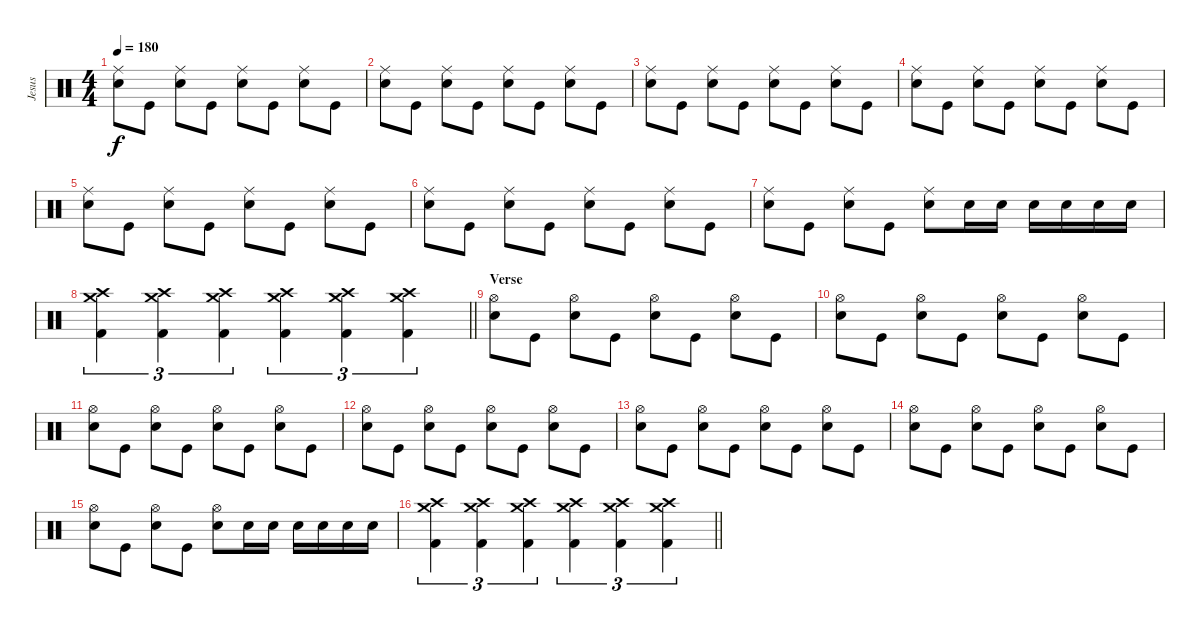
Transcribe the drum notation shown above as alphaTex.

\track ("Jesus" "Jesus") {instrument percussion}
\staff {score}
\articulation defaults
\ts (4 4)
\tempo 180
\clef neutral
\ks c
("Ride (middle)" "Snare (hit) 2").8{dy f} "Kick (hit)".8 ("Ride (middle)" "Snare (hit) 2").8 "Kick (hit)".8 ("Ride (middle)" "Snare (hit) 2").8 "Kick (hit)".8 ("Ride (middle)" "Snare (hit) 2").8 "Kick (hit)".8 |
("Ride (middle)" "Snare (hit) 2").8 "Kick (hit)".8 ("Ride (middle)" "Snare (hit) 2").8 "Kick (hit)".8 ("Ride (middle)" "Snare (hit) 2").8 "Kick (hit)".8 ("Ride (middle)" "Snare (hit) 2").8 "Kick (hit)".8 |
("Ride (middle)" "Snare (hit) 2").8 "Kick (hit)".8 ("Ride (middle)" "Snare (hit) 2").8 "Kick (hit)".8 ("Ride (middle)" "Snare (hit) 2").8 "Kick (hit)".8 ("Ride (middle)" "Snare (hit) 2").8 "Kick (hit)".8 |
("Ride (middle)" "Snare (hit) 2").8 "Kick (hit)".8 ("Ride (middle)" "Snare (hit) 2").8 "Kick (hit)".8 ("Ride (middle)" "Snare (hit) 2").8 "Kick (hit)".8 ("Ride (middle)" "Snare (hit) 2").8 "Kick (hit)".8 |
("Ride (middle)" "Snare (hit) 2").8 "Kick (hit)".8 ("Ride (middle)" "Snare (hit) 2").8 "Kick (hit)".8 ("Ride (middle)" "Snare (hit) 2").8 "Kick (hit)".8 ("Ride (middle)" "Snare (hit) 2").8 "Kick (hit)".8 |
("Ride (middle)" "Snare (hit) 2").8 "Kick (hit)".8 ("Ride (middle)" "Snare (hit) 2").8 "Kick (hit)".8 ("Ride (middle)" "Snare (hit) 2").8 "Kick (hit)".8 ("Ride (middle)" "Snare (hit) 2").8 "Kick (hit)".8 |
("Ride (middle)" "Snare (hit) 2").8 "Kick (hit)".8 ("Ride (middle)" "Snare (hit) 2").8 "Kick (hit)".8 ("Ride (middle)" "Snare (hit) 2").8 "Snare (hit) 2".16 "Snare (hit) 2".16 "Snare (hit) 2".16 "Snare (hit) 2".16 "Snare (hit) 2".16 "Snare (hit) 2".16 |
\barLineRight lightlight
("Crash high (hit)" "Crash medium (hit)" "Kick (hit) 2").4{tu (3 2)} ("Crash high (hit)" "Crash medium (hit)" "Kick (hit) 2").4{tu (3 2)} ("Crash high (hit)" "Crash medium (hit)" "Kick (hit) 2").4{tu (3 2)} ("Crash high (hit)" "Crash medium (hit)" "Kick (hit) 2").4{tu (3 2)} ("Crash high (hit)" "Crash medium (hit)" "Kick (hit) 2").4{tu (3 2)} ("Crash high (hit)" "Crash medium (hit)" "Kick (hit) 2").4{tu (3 2)} |
\section ("" "Verse")
("Hi-Hat (open)" "Snare (hit) 2").8 "Kick (hit)".8 ("Hi-Hat (open)" "Snare (hit) 2").8 "Kick (hit)".8 ("Hi-Hat (open)" "Snare (hit) 2").8 "Kick (hit)".8 ("Hi-Hat (open)" "Snare (hit) 2").8 "Kick (hit)".8 |
("Hi-Hat (open)" "Snare (hit) 2").8 "Kick (hit)".8 ("Hi-Hat (open)" "Snare (hit) 2").8 "Kick (hit)".8 ("Hi-Hat (open)" "Snare (hit) 2").8 "Kick (hit)".8 ("Hi-Hat (open)" "Snare (hit) 2").8 "Kick (hit)".8 |
("Hi-Hat (open)" "Snare (hit) 2").8 "Kick (hit)".8 ("Hi-Hat (open)" "Snare (hit) 2").8 "Kick (hit)".8 ("Hi-Hat (open)" "Snare (hit) 2").8 "Kick (hit)".8 ("Hi-Hat (open)" "Snare (hit) 2").8 "Kick (hit)".8 |
("Hi-Hat (open)" "Snare (hit) 2").8 "Kick (hit)".8 ("Hi-Hat (open)" "Snare (hit) 2").8 "Kick (hit)".8 ("Hi-Hat (open)" "Snare (hit) 2").8 "Kick (hit)".8 ("Hi-Hat (open)" "Snare (hit) 2").8 "Kick (hit)".8 |
("Hi-Hat (open)" "Snare (hit) 2").8 "Kick (hit)".8 ("Hi-Hat (open)" "Snare (hit) 2").8 "Kick (hit)".8 ("Hi-Hat (open)" "Snare (hit) 2").8 "Kick (hit)".8 ("Hi-Hat (open)" "Snare (hit) 2").8 "Kick (hit)".8 |
("Hi-Hat (open)" "Snare (hit) 2").8 "Kick (hit)".8 ("Hi-Hat (open)" "Snare (hit) 2").8 "Kick (hit)".8 ("Hi-Hat (open)" "Snare (hit) 2").8 "Kick (hit)".8 ("Hi-Hat (open)" "Snare (hit) 2").8 "Kick (hit)".8 |
("Hi-Hat (open)" "Snare (hit) 2").8 "Kick (hit)".8 ("Hi-Hat (open)" "Snare (hit) 2").8 "Kick (hit)".8 ("Hi-Hat (open)" "Snare (hit) 2").8 "Snare (hit) 2".16 "Snare (hit) 2".16 "Snare (hit) 2".16 "Snare (hit) 2".16 "Snare (hit) 2".16 "Snare (hit) 2".16 |
\barLineRight lightlight
("Crash high (hit)" "Crash medium (hit)" "Kick (hit) 2").4{tu (3 2)} ("Crash high (hit)" "Crash medium (hit)" "Kick (hit) 2").4{tu (3 2)} ("Crash high (hit)" "Crash medium (hit)" "Kick (hit) 2").4{tu (3 2)} ("Crash high (hit)" "Crash medium (hit)" "Kick (hit) 2").4{tu (3 2)} ("Crash high (hit)" "Crash medium (hit)" "Kick (hit) 2").4{tu (3 2)} ("Crash high (hit)" "Crash medium (hit)" "Kick (hit) 2").4{tu (3 2)}
